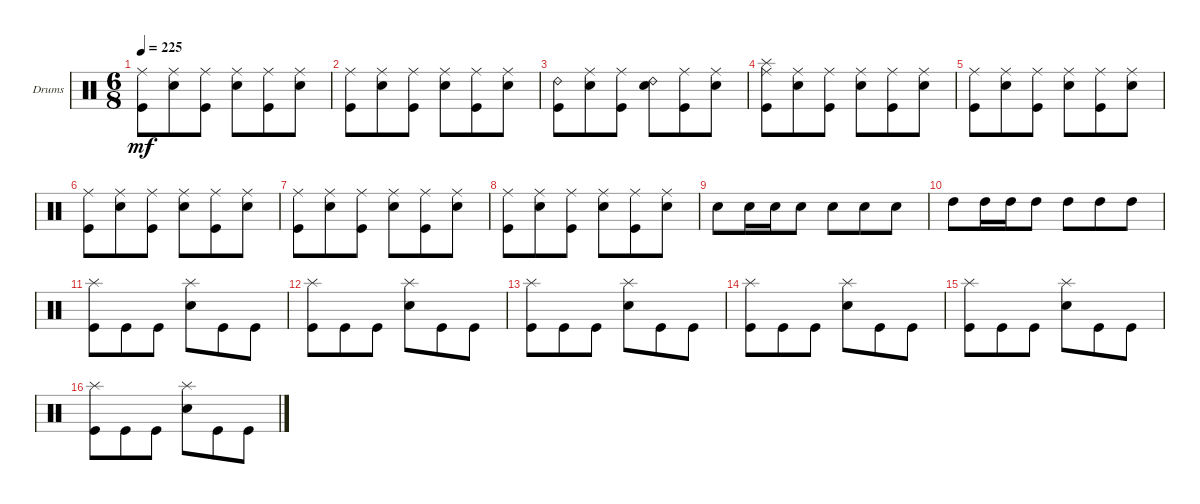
\bracketExtendMode groupsimilarinstruments
\firstSystemTrackNameOrientation horizontal
\otherSystemsTrackNameOrientation horizontal
\track ("Drumkit" "Drums") {solo instrument percussion}
\staff {score}
\articulation defaults
\ts (6 8)
\tempo 225
\clef neutral
\ks c
("Kick (hit)" "Ride (middle)").8{dy mf} ("Snare (hit) 2" "Ride (middle)").8 ("Kick (hit)" "Ride (middle)").8 ("Snare (hit) 2" "Ride (middle)").8 ("Kick (hit)" "Ride (middle)").8 ("Snare (hit) 2" "Ride (middle)").8 |
("Kick (hit)" "Ride (middle)").8 ("Snare (hit) 2" "Ride (middle)").8 ("Kick (hit)" "Ride (middle)").8 ("Snare (hit) 2" "Ride (middle)").8 ("Kick (hit)" "Ride (middle)").8 ("Snare (hit) 2" "Ride (middle)").8 |
("Kick (hit)" "Ride (bell) 2").8 ("Snare (hit) 2" "Ride (middle)").8 ("Kick (hit)" "Ride (middle)").8 ("Snare (hit) 2" "Ride (bell) 2").8 ("Kick (hit)" "Ride (middle)").8 ("Snare (hit) 2" "Ride (middle)").8 |
("Kick (hit)" "Ride (middle)" "Splash (hit)").8 ("Snare (hit) 2" "Ride (middle)").8 ("Kick (hit)" "Ride (middle)").8 ("Snare (hit) 2" "Ride (middle)").8 ("Kick (hit)" "Ride (middle)").8 ("Snare (hit) 2" "Ride (middle)").8 |
("Kick (hit)" "Ride (middle)").8 ("Snare (hit) 2" "Ride (middle)").8 ("Kick (hit)" "Ride (middle)").8 ("Snare (hit) 2" "Ride (middle)").8 ("Kick (hit)" "Ride (middle)").8 ("Snare (hit) 2" "Ride (middle)").8 |
("Kick (hit)" "Ride (middle)").8 ("Snare (hit) 2" "Ride (middle)").8 ("Kick (hit)" "Ride (middle)").8 ("Snare (hit) 2" "Ride (middle)").8 ("Kick (hit)" "Ride (middle)").8 ("Snare (hit) 2" "Ride (middle)").8 |
("Kick (hit)" "Ride (middle)").8 ("Snare (hit) 2" "Ride (middle)").8 ("Kick (hit)" "Ride (middle)").8 ("Snare (hit) 2" "Ride (middle)").8 ("Kick (hit)" "Ride (middle)").8 ("Snare (hit) 2" "Ride (middle)").8 |
("Kick (hit)" "Ride (middle)").8 ("Snare (hit) 2" "Ride (middle)").8 ("Kick (hit)" "Ride (middle)").8 ("Snare (hit) 2" "Ride (middle)").8 ("Kick (hit)" "Ride (middle)").8 ("Snare (hit) 2" "Ride (middle)").8 |
"Snare (hit) 2".8 "Snare (hit) 2".16 "Snare (hit) 2".16 "Snare (hit) 2".8 "Snare (hit) 2".8 "Snare (hit) 2".8 "Snare (hit) 2".8 |
"High Tom (hit)".8 "High Tom (hit)".16 "High Tom (hit)".16 "High Tom (hit)".8 "High Tom (hit)".8 "High Tom (hit)".8 "High Tom (hit)".8 |
("Kick (hit)" "Splash (hit)").8 "Kick (hit)".8 "Kick (hit)".8 ("Snare (hit) 2" "Splash (hit)").8 "Kick (hit)".8 "Kick (hit)".8 |
("Kick (hit)" "Splash (hit)").8 "Kick (hit)".8 "Kick (hit)".8 ("Snare (hit) 2" "Splash (hit)").8 "Kick (hit)".8 "Kick (hit)".8 |
("Kick (hit)" "Splash (hit)").8 "Kick (hit)".8 "Kick (hit)".8 ("Snare (hit) 2" "Splash (hit)").8 "Kick (hit)".8 "Kick (hit)".8 |
("Kick (hit)" "Splash (hit)").8 "Kick (hit)".8 "Kick (hit)".8 ("Snare (hit) 2" "Splash (hit)").8 "Kick (hit)".8 "Kick (hit)".8 |
("Kick (hit)" "Splash (hit)").8 "Kick (hit)".8 "Kick (hit)".8 ("Snare (hit) 2" "Splash (hit)").8 "Kick (hit)".8 "Kick (hit)".8 |
("Kick (hit)" "Splash (hit)").8 "Kick (hit)".8 "Kick (hit)".8 ("Snare (hit) 2" "Splash (hit)").8 "Kick (hit)".8 "Kick (hit)".8
